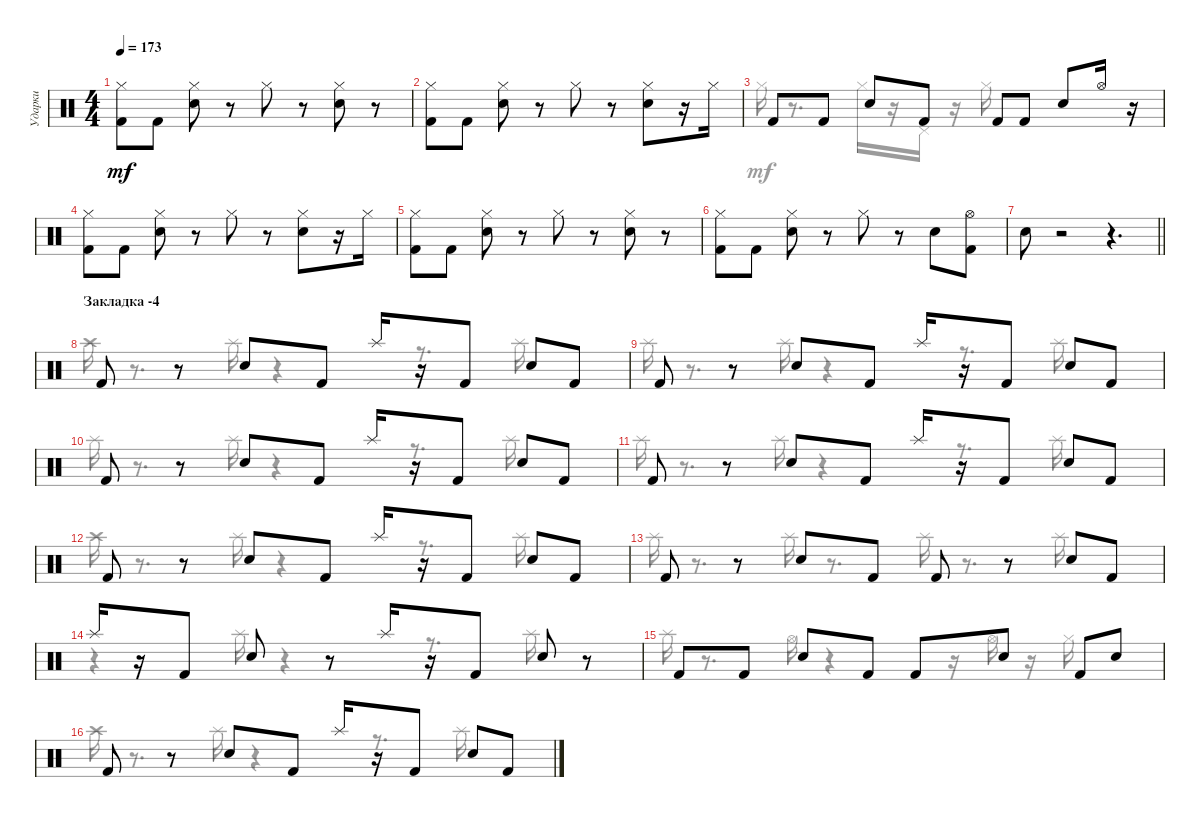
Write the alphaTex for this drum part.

\track ("Ударки" "Ударки") {instrument percussion}
\staff {score}
\articulation defaults
\voice
\ts (4 4)
\tempo 173
\clef neutral
\ks c
("Hi-Hat (closed)" "Kick (hit) 2").8{dy mf} "Kick (hit) 2".8 ("Snare (hit) 2" "Hi-Hat (closed)").8 r.8 "Hi-Hat (closed)".8 r.8 ("Hi-Hat (closed)" "Snare (hit) 2").8 r.8 |
("Kick (hit) 2" "Hi-Hat (closed)").8 "Kick (hit) 2".8 ("Hi-Hat (closed)" "Snare (hit) 2").8 r.8 "Hi-Hat (closed)".8 r.8 ("Snare (hit) 2" "Hi-Hat (closed)").8 r.16 "Hi-Hat (closed)".16 |
"Kick (hit) 2".8 "Kick (hit) 2".8 "Snare (hit) 2".8 "Kick (hit) 2".8 "Kick (hit) 2".8 "Kick (hit) 2".8 "Snare (hit) 2".8 "Hi-Hat (open)".16 r.16 |
("Kick (hit) 2" "Hi-Hat (closed)").8 "Kick (hit) 2".8 ("Hi-Hat (closed)" "Snare (hit) 2").8 r.8 "Hi-Hat (closed)".8 r.8 ("Hi-Hat (closed)" "Snare (hit) 2").8 r.16 "Hi-Hat (closed)".16 |
("Kick (hit) 2" "Hi-Hat (closed)").8 "Kick (hit) 2".8 ("Snare (hit) 2" "Hi-Hat (closed)").8 r.8 "Hi-Hat (closed)".8 r.8 ("Hi-Hat (closed)" "Snare (hit) 2").8 r.8 |
("Hi-Hat (closed)" "Kick (hit) 2").8 "Kick (hit) 2".8 ("Snare (hit) 2" "Hi-Hat (closed)").8 r.8 "Hi-Hat (closed)".8 r.8 "Snare (hit) 2".8 ("Kick (hit) 2" "Hi-Hat (open)").8 |
\barLineRight lightlight "Snare (hit) 2".8
r.2 r.4{d} |
\section ("" "Закладка -4")
"Kick (hit) 2".8 r.8 "Snare (hit) 2".8 "Kick (hit) 2".8 "Splash (hit)".16 r.16 "Kick (hit) 2".8 "Snare (hit) 2".8 "Kick (hit) 2".8 |
\ks aminor "Kick (hit) 2".8
r.8 "Snare (hit) 2".8 "Kick (hit) 2".8 "Splash (hit)".16 r.16 "Kick (hit) 2".8 "Snare (hit) 2".8 "Kick (hit) 2".8 |
"Kick (hit) 2".8 r.8 "Snare (hit) 2".8 "Kick (hit) 2".8 "Splash (hit)".16 r.16 "Kick (hit) 2".8 "Snare (hit) 2".8 "Kick (hit) 2".8 |
"Kick (hit) 2".8 r.8 "Snare (hit) 2".8 "Kick (hit) 2".8 "Splash (hit)".16 r.16 "Kick (hit) 2".8 "Snare (hit) 2".8 "Kick (hit) 2".8 |
"Kick (hit) 2".8 r.8 "Snare (hit) 2".8 "Kick (hit) 2".8 "Splash (hit)".16 r.16 "Kick (hit) 2".8 "Snare (hit) 2".8 "Kick (hit) 2".8 |
"Kick (hit) 2".8 r.8 "Snare (hit) 2".8 "Kick (hit) 2".8 "Kick (hit) 2".8 r.8 "Snare (hit) 2".8 "Kick (hit) 2".8 |
"Splash (hit)".16 r.16 "Kick (hit) 2".8 "Snare (hit) 2".8 r.8 "Splash (hit)".16 r.16 "Kick (hit) 2".8 "Snare (hit) 2".8 r.8 |
"Kick (hit) 2".8 "Kick (hit) 2".8 "Snare (hit) 2".8 "Kick (hit) 2".8 "Kick (hit) 2".8 "Snare (hit) 2".8 "Kick (hit) 2".8 "Snare (hit) 2".8 |
\ks c "Kick (hit) 2".8
r.8 "Snare (hit) 2".8 "Kick (hit) 2".8 "Splash (hit)".16 r.16 "Kick (hit) 2".8 "Snare (hit) 2".8 "Kick (hit) 2".8
\voice
\clef neutral
\ottava regular
\simile none
\ks c
|
|
"Hi-Hat (closed)".16 r.8{d} "Hi-Hat (closed)".16 r.16 "Pedal Hi-Hat (hit)".16 r.16 "Hi-Hat (closed)".16 |
|
|
|
\barLineRight lightlight
|
"Crash high (hit)".16 r.8{d} "Splash (hit)".16 r.4 r.8{d} "Splash (hit)".16 |
\ks aminor "Splash (hit)".16
r.8{d} "Splash (hit)".16 r.4 r.8{d} "Splash (hit)".16 |
"Splash (hit)".16 r.8{d} "Splash (hit)".16 r.4 r.8{d} "Splash (hit)".16 |
"Splash (hit)".16 r.8{d} "Splash (hit)".16 r.4 r.8{d} "Splash (hit)".16 |
"Crash high (hit)".16 r.8{d} "Splash (hit)".16 r.4 r.8{d} "Splash (hit)".16 |
"Splash (hit)".16 r.8{d} "Splash (hit)".16 r.8{d} "Splash (hit)".16 r.8{d} "Splash (hit)".16 |
r.4 "Splash (hit)".16 r.4 r.8{d} "Splash (hit)".16 |
"Splash (hit)".16 r.8{d} "Hi-Hat (open)".16 r.4 r.16 "Hi-Hat (open)".16 r.16 "Hi-Hat (closed)".16 |
\ks c "Crash high (hit)".16
r.8{d} "Splash (hit)".16 r.4 r.8{d} "Splash (hit)".16
